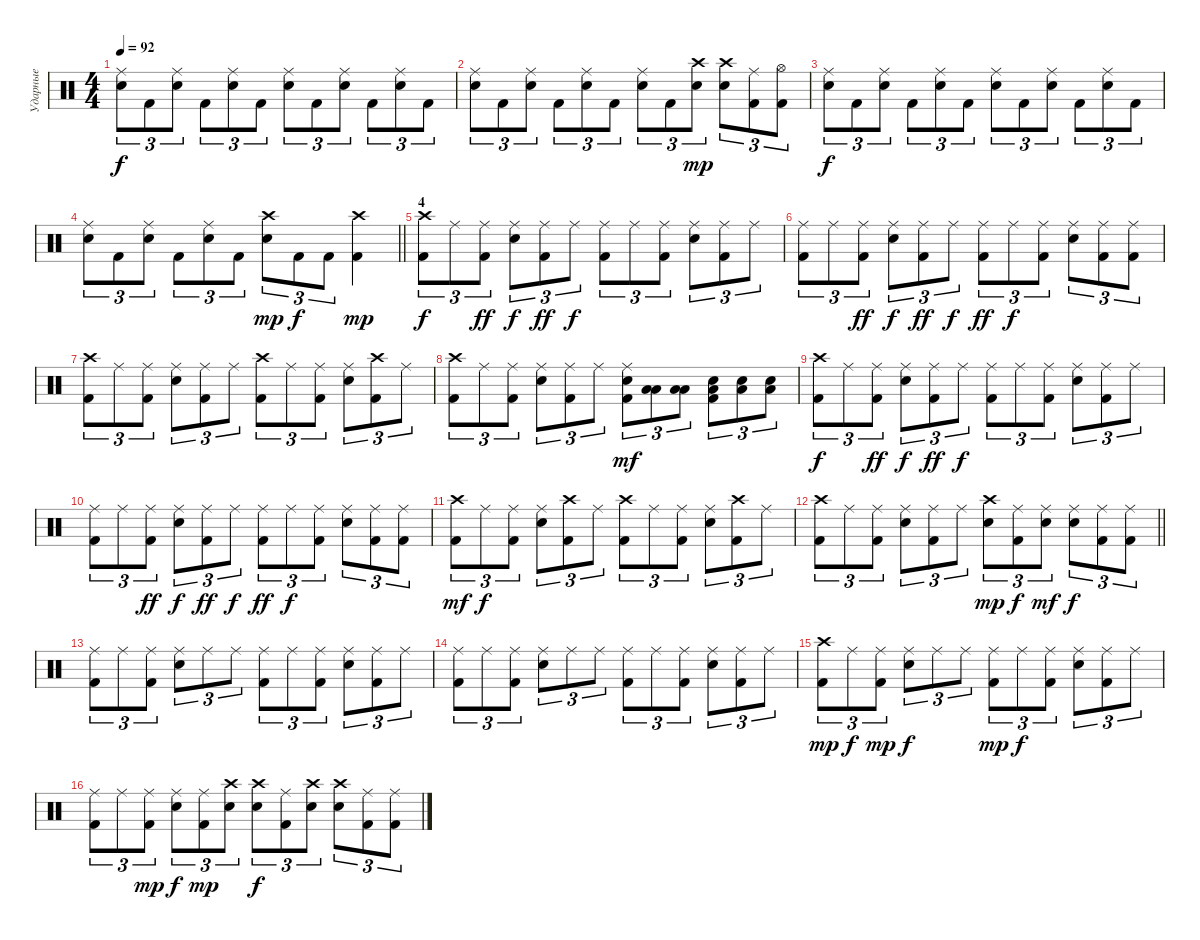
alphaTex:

\track ("Ударные" "Ударные") {instrument percussion}
\staff {score}
\articulation defaults
\ts (4 4)
\tempo 92
\clef neutral
\ks c
("Ride (middle)" "Electric Snare (hit)").8{tu (3 2) dy f} "Kick (hit) 2".8{tu (3 2)} ("Ride (middle)" "Electric Snare (hit)").8{tu (3 2)} "Kick (hit) 2".8{tu (3 2)} ("Ride (middle)" "Electric Snare (hit)").8{tu (3 2)} "Kick (hit) 2".8{tu (3 2)} ("Ride (middle)" "Electric Snare (hit)").8{tu (3 2)} "Kick (hit) 2".8{tu (3 2)} ("Ride (middle)" "Electric Snare (hit)").8{tu (3 2)} "Kick (hit) 2".8{tu (3 2)} ("Ride (middle)" "Electric Snare (hit)").8{tu (3 2)} "Kick (hit) 2".8{tu (3 2)} |
("Ride (middle)" "Electric Snare (hit)").8{tu (3 2)} "Kick (hit) 2".8{tu (3 2)} ("Ride (middle)" "Electric Snare (hit)").8{tu (3 2)} "Kick (hit) 2".8{tu (3 2)} ("Ride (middle)" "Electric Snare (hit)").8{tu (3 2)} "Kick (hit) 2".8{tu (3 2)} ("Ride (middle)" "Electric Snare (hit)").8{tu (3 2)} "Kick (hit) 2".8{tu (3 2)} ("Crash high (hit)" "Electric Snare (hit)").8{tu (3 2) dy mp} ("Crash high (hit)" "Electric Snare (hit)").8{tu (3 2)} ("Ride (middle)" "Kick (hit) 2").8{tu (3 2)} ("Hi-Hat (open)" "Kick (hit) 2").8{tu (3 2)} |
("Ride (middle)" "Electric Snare (hit)").8{tu (3 2) dy f} "Kick (hit) 2".8{tu (3 2)} ("Ride (middle)" "Electric Snare (hit)").8{tu (3 2)} "Kick (hit) 2".8{tu (3 2)} ("Ride (middle)" "Electric Snare (hit)").8{tu (3 2)} "Kick (hit) 2".8{tu (3 2)} ("Ride (middle)" "Electric Snare (hit)").8{tu (3 2)} "Kick (hit) 2".8{tu (3 2)} ("Ride (middle)" "Electric Snare (hit)").8{tu (3 2)} "Kick (hit) 2".8{tu (3 2)} ("Ride (middle)" "Electric Snare (hit)").8{tu (3 2)} "Kick (hit) 2".8{tu (3 2)} |
\barLineRight lightlight
("Ride (middle)" "Electric Snare (hit)").8{tu (3 2)} "Kick (hit) 2".8{tu (3 2)} ("Ride (middle)" "Electric Snare (hit)").8{tu (3 2)} "Kick (hit) 2".8{tu (3 2)} ("Ride (middle)" "Electric Snare (hit)").8{tu (3 2)} "Kick (hit) 2".8{tu (3 2)} ("Crash high (hit)" "Electric Snare (hit)").8{tu (3 2) dy mp} "Kick (hit) 2".8{tu (3 2) dy f} "Kick (hit) 2".8{tu (3 2)} ("Crash high (hit)" "Kick (hit) 2").4{dy mp} |
\section ("" "4")
("Crash high (hit)" "Kick (hit) 2").8{tu (3 2) dy f} "Ride (middle)".8{tu (3 2)} ("Ride (middle)" "Kick (hit) 2").8{tu (3 2) dy ff} ("Ride (middle)" "Electric Snare (hit)").8{tu (3 2) dy f} ("Ride (middle)" "Kick (hit) 2").8{tu (3 2) dy ff} "Ride (middle)".8{tu (3 2) dy f} ("Ride (middle)" "Kick (hit) 2").8{tu (3 2)} "Ride (middle)".8{tu (3 2)} ("Ride (middle)" "Kick (hit) 2").8{tu (3 2)} ("Ride (middle)" "Electric Snare (hit)").8{tu (3 2)} ("Ride (middle)" "Kick (hit) 2").8{tu (3 2)} "Ride (middle)".8{tu (3 2)} |
("Ride (middle)" "Kick (hit) 2").8{tu (3 2)} "Ride (middle)".8{tu (3 2)} ("Ride (middle)" "Kick (hit) 2").8{tu (3 2) dy ff} ("Ride (middle)" "Electric Snare (hit)").8{tu (3 2) dy f} ("Ride (middle)" "Kick (hit) 2").8{tu (3 2) dy ff} "Ride (middle)".8{tu (3 2) dy f} ("Ride (middle)" "Kick (hit) 2").8{tu (3 2) dy ff} "Ride (middle)".8{tu (3 2) dy f} ("Ride (middle)" "Kick (hit) 2").8{tu (3 2)} ("Ride (middle)" "Electric Snare (hit)").8{tu (3 2)} ("Ride (middle)" "Kick (hit) 2").8{tu (3 2)} ("Ride (middle)" "Kick (hit) 2").8{tu (3 2)} |
("Crash high (hit)" "Kick (hit) 2").8{tu (3 2)} "Ride (middle)".8{tu (3 2)} ("Ride (middle)" "Kick (hit) 2").8{tu (3 2)} ("Ride (middle)" "Electric Snare (hit)").8{tu (3 2)} ("Ride (middle)" "Kick (hit) 2").8{tu (3 2)} "Ride (middle)".8{tu (3 2)} ("Crash high (hit)" "Kick (hit) 2").8{tu (3 2)} "Ride (middle)".8{tu (3 2)} ("Ride (middle)" "Kick (hit) 2").8{tu (3 2)} ("Ride (middle)" "Electric Snare (hit)").8{tu (3 2)} ("Crash high (hit)" "Kick (hit) 2").8{tu (3 2)} "Ride (middle)".8{tu (3 2)} |
("Crash high (hit)" "Kick (hit) 2").8{tu (3 2)} "Ride (middle)".8{tu (3 2)} ("Ride (middle)" "Kick (hit) 2").8{tu (3 2)} ("Ride (middle)" "Electric Snare (hit)").8{tu (3 2)} ("Ride (middle)" "Kick (hit) 2").8{tu (3 2)} "Ride (middle)".8{tu (3 2)} ("Ride (middle)" "Electric Snare (hit)" "Kick (hit) 2").8{tu (3 2) dy mf} ("Low Floor Tom (hit)" "Low Tom (hit)").8{tu (3 2)} ("Low Floor Tom (hit)" "Low Tom (hit)").8{tu (3 2)} ("Electric Snare (hit)" "Low Tom (hit)" "Kick (hit) 2").8{tu (3 2)} ("Electric Snare (hit)" "Low Tom (hit)").8{tu (3 2)} ("Electric Snare (hit)" "Low Tom (hit)").8{tu (3 2)} |
("Crash high (hit)" "Kick (hit) 2").8{tu (3 2) dy f} "Ride (middle)".8{tu (3 2)} ("Ride (middle)" "Kick (hit) 2").8{tu (3 2) dy ff} ("Ride (middle)" "Electric Snare (hit)").8{tu (3 2) dy f} ("Ride (middle)" "Kick (hit) 2").8{tu (3 2) dy ff} "Ride (middle)".8{tu (3 2) dy f} ("Ride (middle)" "Kick (hit) 2").8{tu (3 2)} "Ride (middle)".8{tu (3 2)} ("Ride (middle)" "Kick (hit) 2").8{tu (3 2)} ("Ride (middle)" "Electric Snare (hit)").8{tu (3 2)} ("Ride (middle)" "Kick (hit) 2").8{tu (3 2)} "Ride (middle)".8{tu (3 2)} |
("Ride (middle)" "Kick (hit) 2").8{tu (3 2)} "Ride (middle)".8{tu (3 2)} ("Ride (middle)" "Kick (hit) 2").8{tu (3 2) dy ff} ("Ride (middle)" "Electric Snare (hit)").8{tu (3 2) dy f} ("Ride (middle)" "Kick (hit) 2").8{tu (3 2) dy ff} "Ride (middle)".8{tu (3 2) dy f} ("Ride (middle)" "Kick (hit) 2").8{tu (3 2) dy ff} "Ride (middle)".8{tu (3 2) dy f} ("Ride (middle)" "Kick (hit) 2").8{tu (3 2)} ("Ride (middle)" "Electric Snare (hit)").8{tu (3 2)} ("Ride (middle)" "Kick (hit) 2").8{tu (3 2)} ("Ride (middle)" "Kick (hit) 2").8{tu (3 2)} |
("Crash high (hit)" "Kick (hit) 2").8{tu (3 2) dy mf} "Ride (middle)".8{tu (3 2) dy f} ("Ride (middle)" "Kick (hit) 2").8{tu (3 2)} ("Ride (middle)" "Electric Snare (hit)").8{tu (3 2)} ("Crash high (hit)" "Kick (hit) 2").8{tu (3 2)} "Ride (middle)".8{tu (3 2)} ("Crash high (hit)" "Kick (hit) 2").8{tu (3 2)} "Ride (middle)".8{tu (3 2)} ("Ride (middle)" "Kick (hit) 2").8{tu (3 2)} ("Ride (middle)" "Electric Snare (hit)").8{tu (3 2)} ("Crash high (hit)" "Kick (hit) 2").8{tu (3 2)} "Ride (middle)".8{tu (3 2)} |
\barLineRight lightlight
("Crash high (hit)" "Kick (hit) 2").8{tu (3 2)} "Ride (middle)".8{tu (3 2)} ("Ride (middle)" "Kick (hit) 2").8{tu (3 2)} ("Ride (middle)" "Electric Snare (hit)").8{tu (3 2)} ("Ride (middle)" "Kick (hit) 2").8{tu (3 2)} "Ride (middle)".8{tu (3 2)} ("Crash high (hit)" "Electric Snare (hit)").8{tu (3 2) dy mp} ("Ride (middle)" "Kick (hit) 2").8{tu (3 2) dy f} ("Ride (middle)" "Electric Snare (hit)").8{tu (3 2) dy mf} ("Ride (middle)" "Electric Snare (hit)").8{tu (3 2) dy f} ("Ride (middle)" "Kick (hit) 2").8{tu (3 2)} ("Ride (middle)" "Kick (hit) 2").8{tu (3 2)} |
("Ride (middle)" "Kick (hit) 2").8{tu (3 2)} "Ride (middle)".8{tu (3 2)} ("Ride (middle)" "Kick (hit) 2").8{tu (3 2)} ("Ride (middle)" "Electric Snare (hit)").8{tu (3 2)} "Ride (middle)".8{tu (3 2)} "Ride (middle)".8{tu (3 2)} ("Ride (middle)" "Kick (hit) 2").8{tu (3 2)} "Ride (middle)".8{tu (3 2)} ("Ride (middle)" "Kick (hit) 2").8{tu (3 2)} ("Ride (middle)" "Electric Snare (hit)").8{tu (3 2)} ("Ride (middle)" "Kick (hit) 2").8{tu (3 2)} "Ride (middle)".8{tu (3 2)} |
("Ride (middle)" "Kick (hit) 2").8{tu (3 2)} "Ride (middle)".8{tu (3 2)} ("Ride (middle)" "Kick (hit) 2").8{tu (3 2)} ("Ride (middle)" "Electric Snare (hit)").8{tu (3 2)} "Ride (middle)".8{tu (3 2)} "Ride (middle)".8{tu (3 2)} ("Ride (middle)" "Kick (hit) 2").8{tu (3 2)} "Ride (middle)".8{tu (3 2)} ("Ride (middle)" "Kick (hit) 2").8{tu (3 2)} ("Ride (middle)" "Electric Snare (hit)").8{tu (3 2)} ("Ride (middle)" "Kick (hit) 2").8{tu (3 2)} "Ride (middle)".8{tu (3 2)} |
("Crash high (hit)" "Kick (hit) 2").8{tu (3 2) dy mp} "Ride (middle)".8{tu (3 2) dy f} ("Ride (middle)" "Kick (hit) 2").8{tu (3 2) dy mp} ("Ride (middle)" "Electric Snare (hit)").8{tu (3 2) dy f} "Ride (middle)".8{tu (3 2)} "Ride (middle)".8{tu (3 2)} ("Ride (middle)" "Kick (hit) 2").8{tu (3 2) dy mp} "Ride (middle)".8{tu (3 2) dy f} ("Ride (middle)" "Kick (hit) 2").8{tu (3 2)} ("Ride (middle)" "Electric Snare (hit)").8{tu (3 2)} ("Ride (middle)" "Kick (hit) 2").8{tu (3 2)} "Ride (middle)".8{tu (3 2)} |
("Ride (middle)" "Kick (hit) 2").8{tu (3 2)} "Ride (middle)".8{tu (3 2)} ("Ride (middle)" "Kick (hit) 2").8{tu (3 2) dy mp} ("Ride (middle)" "Electric Snare (hit)").8{tu (3 2) dy f} ("Ride (middle)" "Kick (hit) 2").8{tu (3 2) dy mp} ("Crash high (hit)" "Electric Snare (hit)").8{tu (3 2)} ("Crash high (hit)" "Electric Snare (hit)").8{tu (3 2) dy f} ("Ride (middle)" "Kick (hit) 2").8{tu (3 2)} ("Crash high (hit)" "Electric Snare (hit)").8{tu (3 2)} ("Crash high (hit)" "Electric Snare (hit)").8{tu (3 2)} ("Ride (middle)" "Kick (hit) 2").8{tu (3 2)} ("Ride (middle)" "Kick (hit) 2").8{tu (3 2)}
